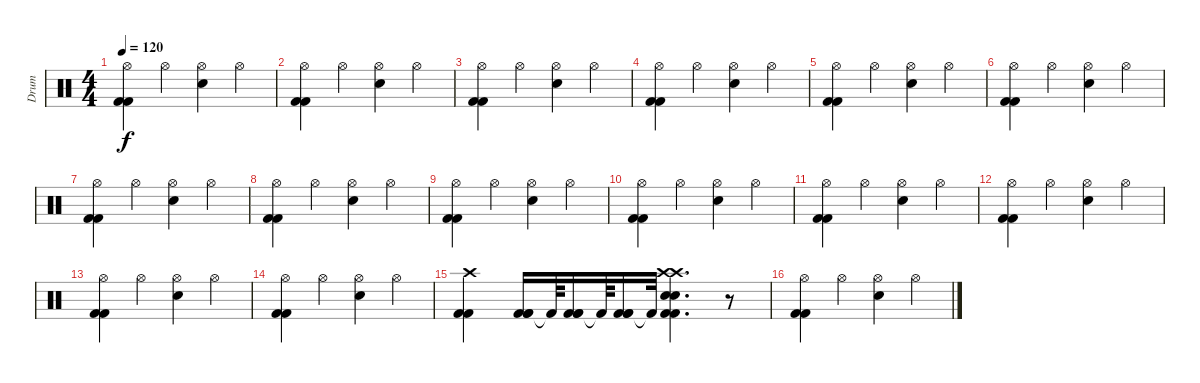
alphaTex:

\track ("Drum" "Drum") {instrument percussion}
\staff {score}
\articulation defaults
\ts (4 4)
\tempo 120
\clef neutral
\ks c
("Kick (hit) 2" "Kick (hit) 2" "Hi-Hat (open)").4{dy f} "Hi-Hat (open)".4 ("Snare (hit) 2" "Hi-Hat (open)").4 "Hi-Hat (open)".4 |
("Kick (hit) 2" "Kick (hit) 2" "Hi-Hat (open)").4 "Hi-Hat (open)".4 ("Snare (hit) 2" "Hi-Hat (open)").4 "Hi-Hat (open)".4 |
("Kick (hit) 2" "Kick (hit) 2" "Hi-Hat (open)").4 "Hi-Hat (open)".4 ("Snare (hit) 2" "Hi-Hat (open)").4 "Hi-Hat (open)".4 |
("Kick (hit) 2" "Kick (hit) 2" "Hi-Hat (open)").4 "Hi-Hat (open)".4 ("Snare (hit) 2" "Hi-Hat (open)").4 "Hi-Hat (open)".4 |
("Kick (hit) 2" "Kick (hit) 2" "Hi-Hat (open)").4 "Hi-Hat (open)".4 ("Snare (hit) 2" "Hi-Hat (open)").4 "Hi-Hat (open)".4 |
("Kick (hit) 2" "Kick (hit) 2" "Hi-Hat (open)").4 "Hi-Hat (open)".4 ("Snare (hit) 2" "Hi-Hat (open)").4 "Hi-Hat (open)".4 |
("Kick (hit) 2" "Kick (hit) 2" "Hi-Hat (open)").4 "Hi-Hat (open)".4 ("Snare (hit) 2" "Hi-Hat (open)").4 "Hi-Hat (open)".4 |
("Kick (hit) 2" "Kick (hit) 2" "Hi-Hat (open)").4 "Hi-Hat (open)".4 ("Snare (hit) 2" "Hi-Hat (open)").4 "Hi-Hat (open)".4 |
("Kick (hit) 2" "Kick (hit) 2" "Hi-Hat (open)").4 "Hi-Hat (open)".4 ("Snare (hit) 2" "Hi-Hat (open)").4 "Hi-Hat (open)".4 |
("Kick (hit) 2" "Kick (hit) 2" "Hi-Hat (open)").4 "Hi-Hat (open)".4 ("Snare (hit) 2" "Hi-Hat (open)").4 "Hi-Hat (open)".4 |
("Kick (hit) 2" "Kick (hit) 2" "Hi-Hat (open)").4 "Hi-Hat (open)".4 ("Snare (hit) 2" "Hi-Hat (open)").4 "Hi-Hat (open)".4 |
("Kick (hit) 2" "Kick (hit) 2" "Hi-Hat (open)").4 "Hi-Hat (open)".4 ("Snare (hit) 2" "Hi-Hat (open)").4 "Hi-Hat (open)".4 |
("Kick (hit) 2" "Kick (hit) 2" "Hi-Hat (open)").4 "Hi-Hat (open)".4 ("Snare (hit) 2" "Hi-Hat (open)").4 "Hi-Hat (open)".4 |
("Kick (hit) 2" "Kick (hit) 2" "Hi-Hat (open)").4 "Hi-Hat (open)".4 ("Snare (hit) 2" "Hi-Hat (open)").4 "Hi-Hat (open)".4 |
("Kick (hit) 2" "Kick (hit) 2" "Crash high (hit)").4 ("Kick (hit) 2" "Kick (hit) 2" "Kick (hit) 2").16 "Kick (hit) 2"{t}.64 ("Kick (hit) 2" "Kick (hit) 2" "Kick (hit) 2").16 "Kick (hit) 2"{t}.64 ("Kick (hit) 2" "Kick (hit) 2" "Kick (hit) 2").16 "Kick (hit) 2"{t}.32 ("Snare (hit) 2" "Snare (hit) 2" "Kick (hit) 2" "Kick (hit) 2" "Crash high (hit)" "Crash high (hit)").4{d} r.8 |
("Kick (hit) 2" "Kick (hit) 2" "Hi-Hat (open)").4 "Hi-Hat (open)".4 ("Snare (hit) 2" "Hi-Hat (open)").4 "Hi-Hat (open)".4
